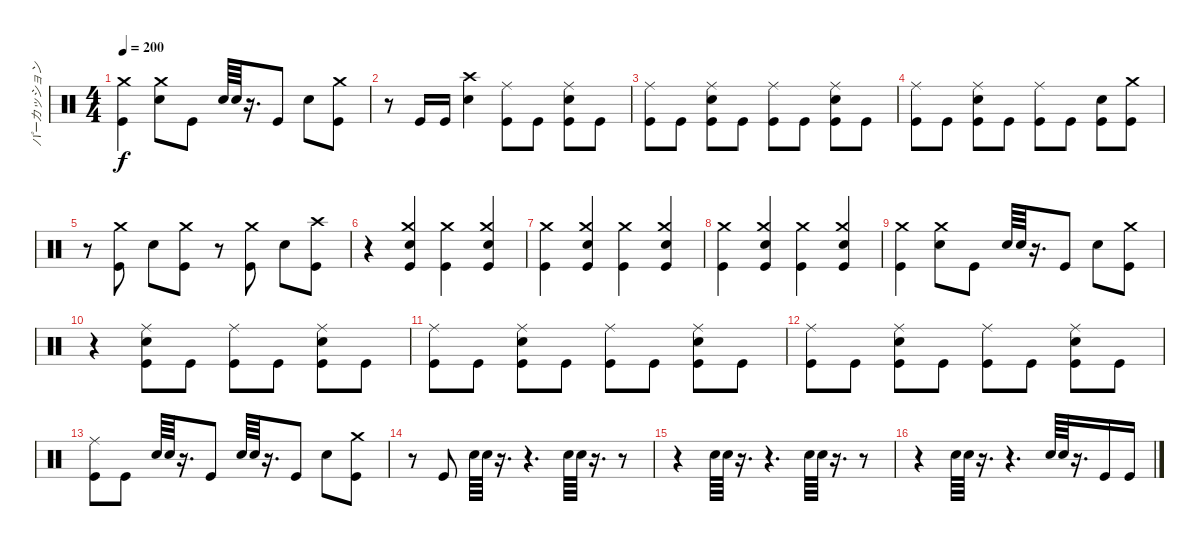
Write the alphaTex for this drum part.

\track ("パーカッション" "パーカッション") {instrument percussion}
\staff {score}
\articulation defaults
\ts (4 4)
\tempo 200
\clef neutral
\ks c
("Kick (hit)" "Crash medium (hit)").4{dy f} ("Crash medium (hit)" "Snare (hit) 2").8 "Kick (hit)".8 "Snare (hit) 2".64 "Snare (hit) 2".64 r.16{d} "Kick (hit)".8 "Snare (hit) 2".8 ("Crash medium (hit)" "Kick (hit)").8 |
r.8 "Kick (hit)".16 "Kick (hit)".16 ("Snare (hit) 2" "Crash high (hit)").4 ("Kick (hit)" "Ride (middle)").8 "Kick (hit)".8 ("Kick (hit)" "Ride (middle)" "Snare (hit) 2").8 "Kick (hit)".8 |
("Kick (hit)" "Ride (middle)").8 "Kick (hit)".8 ("Kick (hit)" "Ride (middle)" "Snare (hit) 2").8 "Kick (hit)".8 ("Kick (hit)" "Ride (middle)").8 "Kick (hit)".8 ("Kick (hit)" "Ride (middle)" "Snare (hit) 2").8 "Kick (hit)".8 |
("Kick (hit)" "Ride (middle)").8 "Kick (hit)".8 ("Kick (hit)" "Ride (middle)" "Snare (hit) 2").8 "Kick (hit)".8 ("Kick (hit)" "Ride (middle)").8 "Kick (hit)".8 ("Kick (hit)" "Snare (hit) 2").8 ("Kick (hit)" "Crash medium (hit)").8 |
r.8 ("Kick (hit)" "Crash medium (hit)").8 "Snare (hit) 2".8 ("Kick (hit)" "Crash medium (hit)").8 r.8 ("Kick (hit)" "Crash medium (hit)").8 "Snare (hit) 2".8 ("Kick (hit)" "Crash high (hit)").8 |
r.4 ("Crash medium (hit)" "Kick (hit)" "Snare (hit) 2").4 ("Kick (hit)" "Crash medium (hit)").4 ("Crash medium (hit)" "Kick (hit)" "Snare (hit) 2").4 |
("Kick (hit)" "Crash medium (hit)").4 ("Crash medium (hit)" "Kick (hit)" "Snare (hit) 2").4 ("Kick (hit)" "Crash medium (hit)").4 ("Crash medium (hit)" "Kick (hit)" "Snare (hit) 2").4 |
("Kick (hit)" "Crash medium (hit)").4 ("Crash medium (hit)" "Kick (hit)" "Snare (hit) 2").4 ("Kick (hit)" "Crash medium (hit)").4 ("Crash medium (hit)" "Kick (hit)" "Snare (hit) 2").4 |
("Kick (hit)" "Crash medium (hit)").4 ("Crash medium (hit)" "Snare (hit) 2").8 "Kick (hit)".8 "Snare (hit) 2".64 "Snare (hit) 2".64 r.16{d} "Kick (hit)".8 "Snare (hit) 2".8 ("Crash medium (hit)" "Kick (hit)").8 |
r.4 ("Snare (hit) 2" "Ride (middle)" "Kick (hit)").8 "Kick (hit)".8 ("Kick (hit)" "Ride (middle)").8 "Kick (hit)".8 ("Kick (hit)" "Ride (middle)" "Snare (hit) 2").8 "Kick (hit)".8 |
("Kick (hit)" "Ride (middle)").8 "Kick (hit)".8 ("Kick (hit)" "Ride (middle)" "Snare (hit) 2").8 "Kick (hit)".8 ("Kick (hit)" "Ride (middle)").8 "Kick (hit)".8 ("Kick (hit)" "Ride (middle)" "Snare (hit) 2").8 "Kick (hit)".8 |
("Kick (hit)" "Ride (middle)").8 "Kick (hit)".8 ("Kick (hit)" "Ride (middle)" "Snare (hit) 2").8 "Kick (hit)".8 ("Kick (hit)" "Ride (middle)").8 "Kick (hit)".8 ("Kick (hit)" "Ride (middle)" "Snare (hit) 2").8 "Kick (hit)".8 |
("Ride (middle)" "Kick (hit)").8 "Kick (hit)".8 "Snare (hit) 2".64 "Snare (hit) 2".64 r.16{d} "Kick (hit)".8 "Snare (hit) 2".64 "Snare (hit) 2".64 r.16{d} "Kick (hit)".8 "Snare (hit) 2".8 ("Crash medium (hit)" "Kick (hit)").8 |
r.8 "Kick (hit)".8 "Snare (hit) 2".64 "Snare (hit) 2".64 r.16{d} r.4{d} "Snare (hit) 2".64 "Snare (hit) 2".64 r.16{d} r.8 |
r.4 "Snare (hit) 2".64 "Snare (hit) 2".64 r.16{d} r.4{d} "Snare (hit) 2".64 "Snare (hit) 2".64 r.16{d} r.8 |
r.4 "Snare (hit) 2".64 "Snare (hit) 2".64 r.16{d} r.4{d} "Snare (hit) 2".64 "Snare (hit) 2".64 r.16{d} "Kick (hit)".16 "Kick (hit)".16
